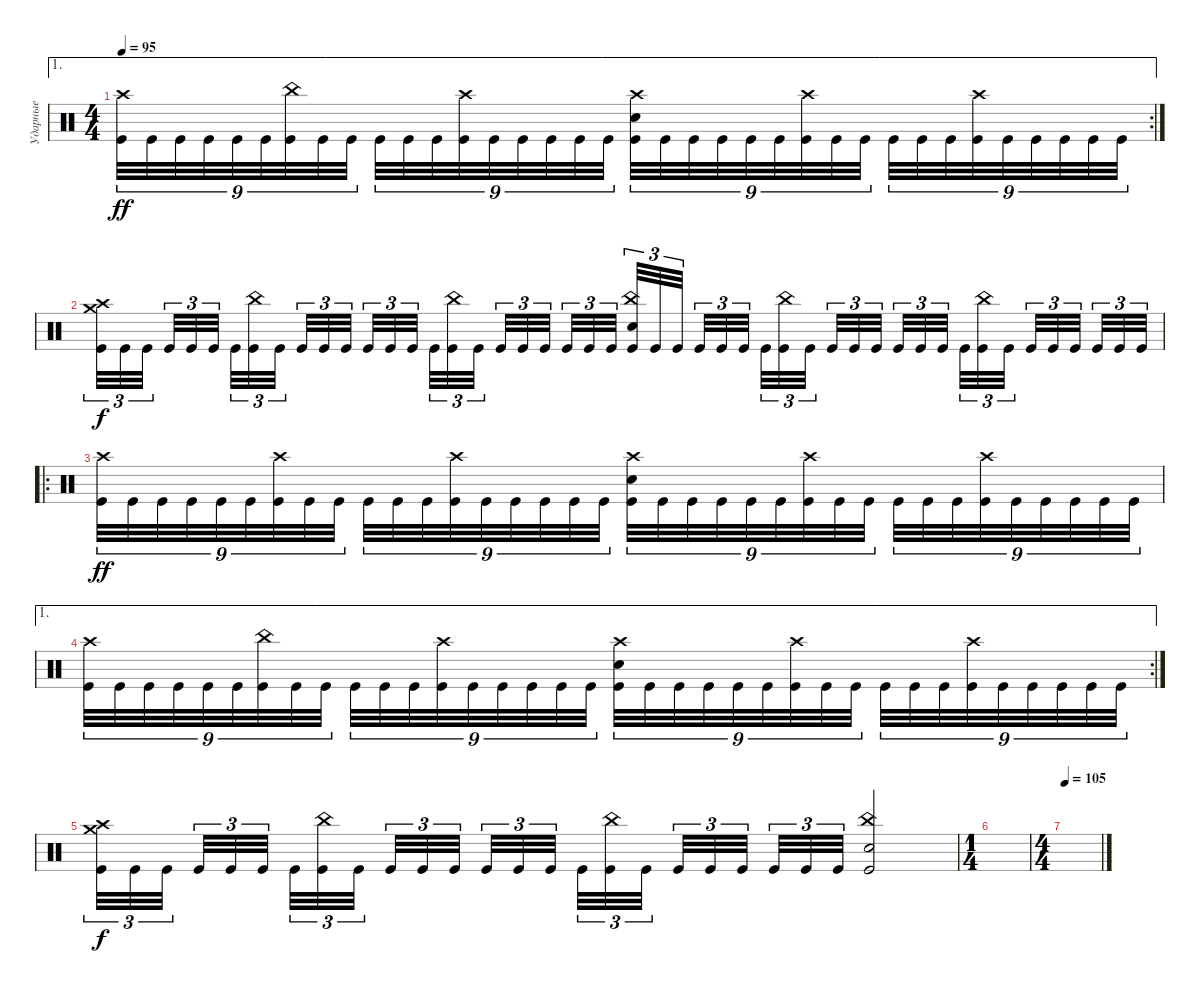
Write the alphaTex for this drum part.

\track ("Ударные" "Ударные") {instrument percussion}
\staff {score}
\articulation defaults
\ae 1
\rc 2
\ts (4 4)
\tempo 95
\clef neutral
\ks c
("Crash high (hit)" "Kick (hit)").32{tu (9 8) dy ff} "Kick (hit)".32{tu (9 8)} "Kick (hit)".32{tu (9 8)} "Kick (hit)".32{tu (9 8)} "Kick (hit)".32{tu (9 8)} "Kick (hit)".32{tu (9 8)} ("China (hit)" "Kick (hit)").32{tu (9 8)} "Kick (hit)".32{tu (9 8)} "Kick (hit)".32{tu (9 8)} "Kick (hit)".32{tu (9 8)} "Kick (hit)".32{tu (9 8)} "Kick (hit)".32{tu (9 8)} ("Crash high (hit)" "Kick (hit)").32{tu (9 8)} "Kick (hit)".32{tu (9 8)} "Kick (hit)".32{tu (9 8)} "Kick (hit)".32{tu (9 8)} "Kick (hit)".32{tu (9 8)} "Kick (hit)".32{tu (9 8)} ("Snare (hit) 2" "Crash high (hit)" "Kick (hit)").32{tu (9 8)} "Kick (hit)".32{tu (9 8)} "Kick (hit)".32{tu (9 8)} "Kick (hit)".32{tu (9 8)} "Kick (hit)".32{tu (9 8)} "Kick (hit)".32{tu (9 8)} ("Crash high (hit)" "Kick (hit)").32{tu (9 8)} "Kick (hit)".32{tu (9 8)} "Kick (hit)".32{tu (9 8)} "Kick (hit)".32{tu (9 8)} "Kick (hit)".32{tu (9 8)} "Kick (hit)".32{tu (9 8)} ("Crash high (hit)" "Kick (hit)").32{tu (9 8)} "Kick (hit)".32{tu (9 8)} "Kick (hit)".32{tu (9 8)} "Kick (hit)".32{tu (9 8)} "Kick (hit)".32{tu (9 8)} "Kick (hit)".32{tu (9 8)} |
("Crash medium (hit)" "Crash high (hit)" "Kick (hit)").32{tu (3 2) dy f} "Kick (hit)".32{tu (3 2)} "Kick (hit)".32{tu (3 2) beam splitsecondary} "Kick (hit)".32{tu (3 2)} "Kick (hit)".32{tu (3 2)} "Kick (hit)".32{tu (3 2) beam splitsecondary} "Kick (hit)".32{tu (3 2)} ("China (hit)" "Kick (hit)").32{tu (3 2)} "Kick (hit)".32{tu (3 2) beam splitsecondary} "Kick (hit)".32{tu (3 2)} "Kick (hit)".32{tu (3 2)} "Kick (hit)".32{tu (3 2)} "Kick (hit)".32{tu (3 2)} "Kick (hit)".32{tu (3 2)} "Kick (hit)".32{tu (3 2) beam splitsecondary} "Kick (hit)".32{tu (3 2)} ("China (hit)" "Kick (hit)").32{tu (3 2)} "Kick (hit)".32{tu (3 2) beam splitsecondary} "Kick (hit)".32{tu (3 2)} "Kick (hit)".32{tu (3 2)} "Kick (hit)".32{tu (3 2) beam splitsecondary} "Kick (hit)".32{tu (3 2)} "Kick (hit)".32{tu (3 2)} "Kick (hit)".32{tu (3 2)} ("Snare (hit) 2" "China (hit)" "Kick (hit)").32{tu (3 2)} "Kick (hit)".32{tu (3 2)} "Kick (hit)".32{tu (3 2) beam splitsecondary} "Kick (hit)".32{tu (3 2)} "Kick (hit)".32{tu (3 2)} "Kick (hit)".32{tu (3 2) beam splitsecondary} "Kick (hit)".32{tu (3 2)} ("China (hit)" "Kick (hit)").32{tu (3 2)} "Kick (hit)".32{tu (3 2) beam splitsecondary} "Kick (hit)".32{tu (3 2)} "Kick (hit)".32{tu (3 2)} "Kick (hit)".32{tu (3 2)} "Kick (hit)".32{tu (3 2)} "Kick (hit)".32{tu (3 2)} "Kick (hit)".32{tu (3 2) beam splitsecondary} "Kick (hit)".32{tu (3 2)} ("China (hit)" "Kick (hit)").32{tu (3 2)} "Kick (hit)".32{tu (3 2) beam splitsecondary} "Kick (hit)".32{tu (3 2)} "Kick (hit)".32{tu (3 2)} "Kick (hit)".32{tu (3 2) beam splitsecondary} "Kick (hit)".32{tu (3 2)} "Kick (hit)".32{tu (3 2)} "Kick (hit)".32{tu (3 2)} |
\ro
("Crash high (hit)" "Kick (hit)").32{tu (9 8) dy ff} "Kick (hit)".32{tu (9 8)} "Kick (hit)".32{tu (9 8)} "Kick (hit)".32{tu (9 8)} "Kick (hit)".32{tu (9 8)} "Kick (hit)".32{tu (9 8)} ("Crash high (hit)" "Kick (hit)").32{tu (9 8)} "Kick (hit)".32{tu (9 8)} "Kick (hit)".32{tu (9 8)} "Kick (hit)".32{tu (9 8)} "Kick (hit)".32{tu (9 8)} "Kick (hit)".32{tu (9 8)} ("Crash high (hit)" "Kick (hit)").32{tu (9 8)} "Kick (hit)".32{tu (9 8)} "Kick (hit)".32{tu (9 8)} "Kick (hit)".32{tu (9 8)} "Kick (hit)".32{tu (9 8)} "Kick (hit)".32{tu (9 8)} ("Snare (hit) 2" "Crash high (hit)" "Kick (hit)").32{tu (9 8)} "Kick (hit)".32{tu (9 8)} "Kick (hit)".32{tu (9 8)} "Kick (hit)".32{tu (9 8)} "Kick (hit)".32{tu (9 8)} "Kick (hit)".32{tu (9 8)} ("Crash high (hit)" "Kick (hit)").32{tu (9 8)} "Kick (hit)".32{tu (9 8)} "Kick (hit)".32{tu (9 8)} "Kick (hit)".32{tu (9 8)} "Kick (hit)".32{tu (9 8)} "Kick (hit)".32{tu (9 8)} ("Crash high (hit)" "Kick (hit)").32{tu (9 8)} "Kick (hit)".32{tu (9 8)} "Kick (hit)".32{tu (9 8)} "Kick (hit)".32{tu (9 8)} "Kick (hit)".32{tu (9 8)} "Kick (hit)".32{tu (9 8)} |
\ae 1
\rc 2
("Crash high (hit)" "Kick (hit)").32{tu (9 8)} "Kick (hit)".32{tu (9 8)} "Kick (hit)".32{tu (9 8)} "Kick (hit)".32{tu (9 8)} "Kick (hit)".32{tu (9 8)} "Kick (hit)".32{tu (9 8)} ("China (hit)" "Kick (hit)").32{tu (9 8)} "Kick (hit)".32{tu (9 8)} "Kick (hit)".32{tu (9 8)} "Kick (hit)".32{tu (9 8)} "Kick (hit)".32{tu (9 8)} "Kick (hit)".32{tu (9 8)} ("Crash high (hit)" "Kick (hit)").32{tu (9 8)} "Kick (hit)".32{tu (9 8)} "Kick (hit)".32{tu (9 8)} "Kick (hit)".32{tu (9 8)} "Kick (hit)".32{tu (9 8)} "Kick (hit)".32{tu (9 8)} ("Snare (hit) 2" "Crash high (hit)" "Kick (hit)").32{tu (9 8)} "Kick (hit)".32{tu (9 8)} "Kick (hit)".32{tu (9 8)} "Kick (hit)".32{tu (9 8)} "Kick (hit)".32{tu (9 8)} "Kick (hit)".32{tu (9 8)} ("Crash high (hit)" "Kick (hit)").32{tu (9 8)} "Kick (hit)".32{tu (9 8)} "Kick (hit)".32{tu (9 8)} "Kick (hit)".32{tu (9 8)} "Kick (hit)".32{tu (9 8)} "Kick (hit)".32{tu (9 8)} ("Crash high (hit)" "Kick (hit)").32{tu (9 8)} "Kick (hit)".32{tu (9 8)} "Kick (hit)".32{tu (9 8)} "Kick (hit)".32{tu (9 8)} "Kick (hit)".32{tu (9 8)} "Kick (hit)".32{tu (9 8)} |
("Crash medium (hit)" "Crash high (hit)" "Kick (hit)").32{tu (3 2) dy f} "Kick (hit)".32{tu (3 2)} "Kick (hit)".32{tu (3 2) beam splitsecondary} "Kick (hit)".32{tu (3 2)} "Kick (hit)".32{tu (3 2)} "Kick (hit)".32{tu (3 2) beam splitsecondary} "Kick (hit)".32{tu (3 2)} ("China (hit)" "Kick (hit)").32{tu (3 2)} "Kick (hit)".32{tu (3 2) beam splitsecondary} "Kick (hit)".32{tu (3 2)} "Kick (hit)".32{tu (3 2)} "Kick (hit)".32{tu (3 2)} "Kick (hit)".32{tu (3 2)} "Kick (hit)".32{tu (3 2)} "Kick (hit)".32{tu (3 2) beam splitsecondary} "Kick (hit)".32{tu (3 2)} ("China (hit)" "Kick (hit)").32{tu (3 2)} "Kick (hit)".32{tu (3 2) beam splitsecondary} "Kick (hit)".32{tu (3 2)} "Kick (hit)".32{tu (3 2)} "Kick (hit)".32{tu (3 2) beam splitsecondary} "Kick (hit)".32{tu (3 2)} "Kick (hit)".32{tu (3 2)} "Kick (hit)".32{tu (3 2)} ("Snare (hit) 2" "China (hit)" "Kick (hit)").2 |
\ts (1 4)
|
\ts (4 4)
\tempo 105
